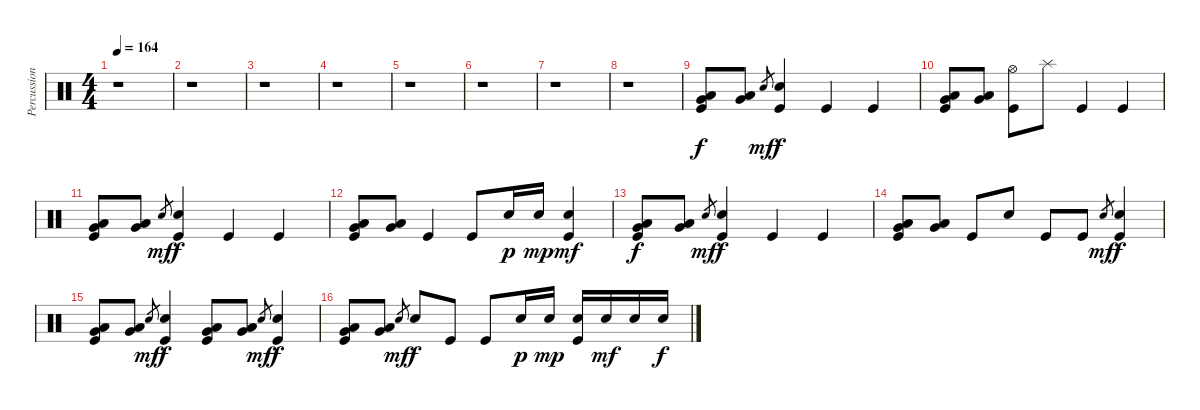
\track ("Percussion" "Percussion") {instrument percussion}
\staff {score}
\articulation defaults
\ts (4 4)
\tempo 164
\clef neutral
\ks c
r.1{dy fff} |
r.1 |
r.1 |
r.1 |
r.1 |
r.1 |
r.1 |
r.1 |
("Low Tom (hit)" "Very Low Tom (hit)" "Kick (hit)").8{dy f} ("Low Tom (hit)" "Very Low Tom (hit)").8 "Electric Snare (hit)".8{gr dy mf} ("Electric Snare (hit)" "Kick (hit)").4{dy f} "Kick (hit)".4 "Kick (hit)".4 |
("Low Tom (hit)" "Very Low Tom (hit)" "Kick (hit)").8 ("Low Tom (hit)" "Very Low Tom (hit)").8 ("Hi-Hat (open)" "Kick (hit)").8 "Splash (hit)".8 "Kick (hit)".4 "Kick (hit)".4 |
("Low Tom (hit)" "Very Low Tom (hit)" "Kick (hit)").8 ("Low Tom (hit)" "Very Low Tom (hit)").8 "Electric Snare (hit)".8{gr dy mf} ("Electric Snare (hit)" "Kick (hit)").4{dy f} "Kick (hit)".4 "Kick (hit)".4 |
("Low Tom (hit)" "Very Low Tom (hit)" "Kick (hit)").8 ("Low Tom (hit)" "Very Low Tom (hit)").8 "Kick (hit)".4 "Kick (hit)".8 "Electric Snare (hit)".16{dy p} "Electric Snare (hit)".16{dy mp} ("Electric Snare (hit)" "Kick (hit)").4{dy mf} |
("Low Tom (hit)" "Very Low Tom (hit)" "Kick (hit)").8{dy f} ("Low Tom (hit)" "Very Low Tom (hit)").8 "Electric Snare (hit)".8{gr dy mf} ("Electric Snare (hit)" "Kick (hit)").4{dy f} "Kick (hit)".4 "Kick (hit)".4 |
("Low Tom (hit)" "Very Low Tom (hit)" "Kick (hit)").8 ("Low Tom (hit)" "Very Low Tom (hit)").8 "Kick (hit)".8 "Electric Snare (hit)".8 "Kick (hit)".8 "Kick (hit)".8 "Electric Snare (hit)".8{gr dy mf} ("Electric Snare (hit)" "Kick (hit)").4{dy f} |
("Low Tom (hit)" "Very Low Tom (hit)" "Kick (hit)").8 ("Low Tom (hit)" "Very Low Tom (hit)").8 "Electric Snare (hit)".8{gr dy mf} ("Electric Snare (hit)" "Kick (hit)").4{dy f} ("Low Tom (hit)" "Very Low Tom (hit)" "Kick (hit)").8 ("Low Tom (hit)" "Very Low Tom (hit)").8 "Electric Snare (hit)".8{gr dy mf} ("Electric Snare (hit)" "Kick (hit)").4{dy f} |
("Low Tom (hit)" "Very Low Tom (hit)" "Kick (hit)").8 ("Low Tom (hit)" "Very Low Tom (hit)").8 "Electric Snare (hit)".8{gr dy mf} "Electric Snare (hit)".8{dy f} "Kick (hit)".8 "Kick (hit)".8 "Electric Snare (hit)".16{dy p} "Electric Snare (hit)".16{dy mp} ("Electric Snare (hit)" "Kick (hit)").16 "Electric Snare (hit)".16{dy mf} "Electric Snare (hit)".16 "Electric Snare (hit)".16{dy f}
